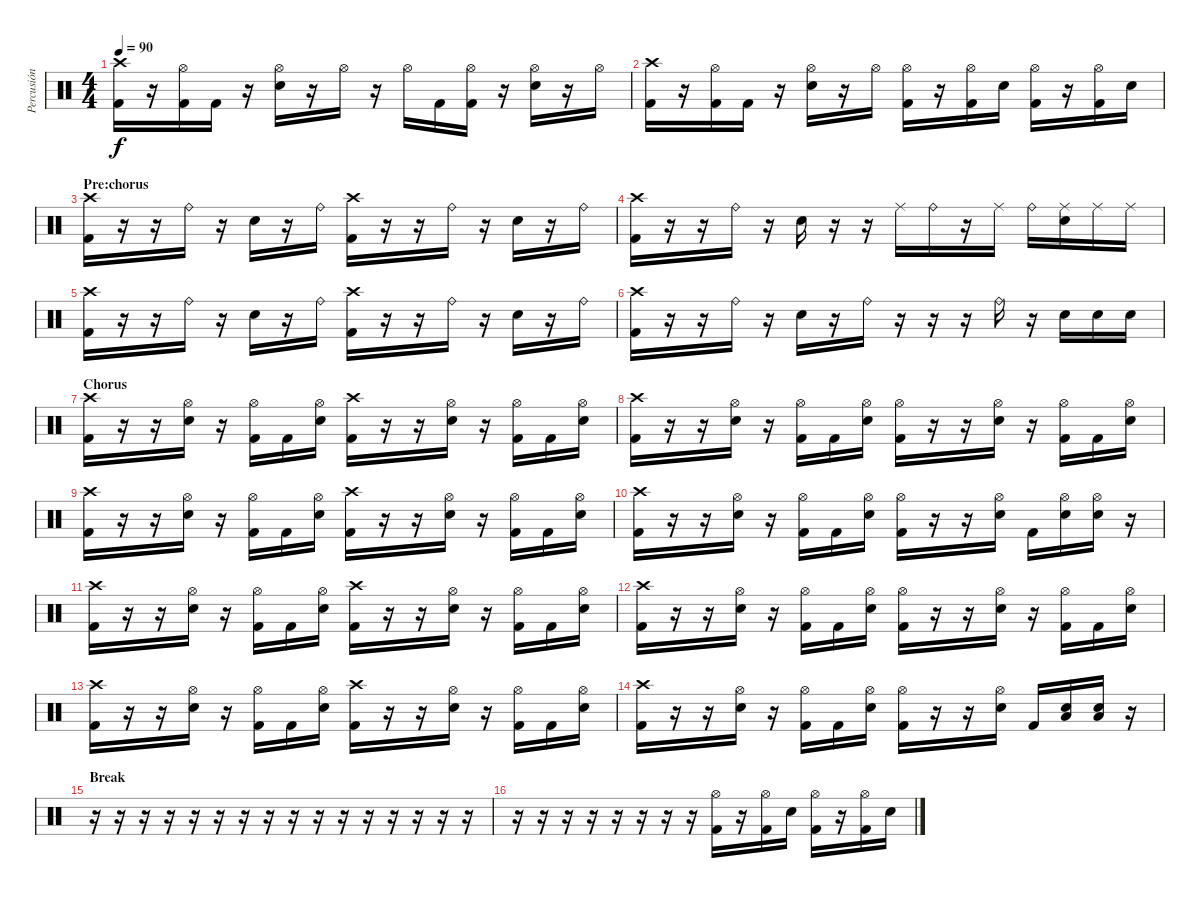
\track ("Percusión" "Percusión") {instrument percussion}
\staff {score}
\articulation defaults
\ts (4 4)
\tempo 90
\clef neutral
\ks c
("Crash high (hit)" "Kick (hit) 2").16{dy f} r.16 ("Hi-Hat (open)" "Kick (hit) 2").16 "Kick (hit) 2".16 r.16 ("Hi-Hat (open)" "Electric Snare (hit)").16 r.16 "Hi-Hat (open)".16 r.16 "Hi-Hat (open)".16 "Kick (hit) 2".16 ("Hi-Hat (open)" "Kick (hit) 2").16 r.16 ("Hi-Hat (open)" "Electric Snare (hit)").16 r.16 "Hi-Hat (open)".16 |
("Crash high (hit)" "Kick (hit) 2").16 r.16 ("Hi-Hat (open)" "Kick (hit) 2").16 "Kick (hit) 2".16 r.16 ("Hi-Hat (open)" "Electric Snare (hit)").16 r.16 "Hi-Hat (open)".16 ("Hi-Hat (open)" "Kick (hit) 2").16 r.16 ("Hi-Hat (open)" "Kick (hit) 2").16 "Electric Snare (hit)".16 ("Hi-Hat (open)" "Kick (hit) 2").16 r.16 ("Hi-Hat (open)" "Kick (hit) 2").16 "Electric Snare (hit)".16 |
\section ("" "Pre:chorus")
("Crash high (hit)" "Kick (hit) 2").16 r.16 r.16 "Ride (bell)".16 r.16 "Electric Snare (hit)".16 r.16 "Ride (bell)".16 ("Crash high (hit)" "Kick (hit) 2").16 r.16 r.16 "Ride (bell)".16 r.16 "Electric Snare (hit)".16 r.16 "Ride (bell)".16 |
("Crash high (hit)" "Kick (hit) 2").16 r.16 r.16 "Ride (bell)".16 r.16 "Electric Snare (hit)".16 r.16 r.16 "Ride (middle)".16 "Ride (bell)".16 r.16 "Ride (middle)".16 "Ride (bell)".16 ("Ride (middle)" "Electric Snare (hit)").16 "Ride (middle)".16 "Ride (middle)".16 |
("Crash high (hit)" "Kick (hit) 2").16 r.16 r.16 "Ride (bell)".16 r.16 "Electric Snare (hit)".16 r.16 "Ride (bell)".16 ("Crash high (hit)" "Kick (hit) 2").16 r.16 r.16 "Ride (bell)".16 r.16 "Electric Snare (hit)".16 r.16 "Ride (bell)".16 |
("Crash high (hit)" "Kick (hit) 2").16 r.16 r.16 "Ride (bell)".16 r.16 "Electric Snare (hit)".16 r.16 "Ride (bell)".16 r.16 r.16 r.16 "Ride (bell)".16 r.16 "Electric Snare (hit)".16 "Electric Snare (hit)".16 "Electric Snare (hit)".16 |
\section ("" "Chorus")
("Crash high (hit)" "Kick (hit) 2").16 r.16 r.16 ("Hi-Hat (open)" "Electric Snare (hit)").16 r.16 ("Hi-Hat (open)" "Kick (hit) 2").16 "Kick (hit) 2".16 ("Hi-Hat (open)" "Electric Snare (hit)").16 ("Crash high (hit)" "Kick (hit) 2").16 r.16 r.16 ("Hi-Hat (open)" "Electric Snare (hit)").16 r.16 ("Hi-Hat (open)" "Kick (hit) 2").16 "Kick (hit) 2".16 ("Hi-Hat (open)" "Electric Snare (hit)").16 |
("Crash high (hit)" "Kick (hit) 2").16 r.16 r.16 ("Hi-Hat (open)" "Electric Snare (hit)").16 r.16 ("Hi-Hat (open)" "Kick (hit) 2").16 "Kick (hit) 2".16 ("Hi-Hat (open)" "Electric Snare (hit)").16 ("Hi-Hat (open)" "Kick (hit) 2").16 r.16 r.16 ("Hi-Hat (open)" "Electric Snare (hit)").16 r.16 ("Hi-Hat (open)" "Kick (hit) 2").16 "Kick (hit) 2".16 ("Hi-Hat (open)" "Electric Snare (hit)").16 |
("Crash high (hit)" "Kick (hit) 2").16 r.16 r.16 ("Hi-Hat (open)" "Electric Snare (hit)").16 r.16 ("Hi-Hat (open)" "Kick (hit) 2").16 "Kick (hit) 2".16 ("Hi-Hat (open)" "Electric Snare (hit)").16 ("Crash high (hit)" "Kick (hit) 2").16 r.16 r.16 ("Hi-Hat (open)" "Electric Snare (hit)").16 r.16 ("Hi-Hat (open)" "Kick (hit) 2").16 "Kick (hit) 2".16 ("Hi-Hat (open)" "Electric Snare (hit)").16 |
("Crash high (hit)" "Kick (hit) 2").16 r.16 r.16 ("Hi-Hat (open)" "Electric Snare (hit)").16 r.16 ("Hi-Hat (open)" "Kick (hit) 2").16 "Kick (hit) 2".16 ("Hi-Hat (open)" "Electric Snare (hit)").16 ("Hi-Hat (open)" "Kick (hit) 2").16 r.16 r.16 ("Hi-Hat (open)" "Electric Snare (hit)").16 "Kick (hit) 2".16 ("Hi-Hat (open)" "Electric Snare (hit)").16 ("Hi-Hat (open)" "Electric Snare (hit)").16 r.16 |
("Crash high (hit)" "Kick (hit) 2").16 r.16 r.16 ("Hi-Hat (open)" "Electric Snare (hit)").16 r.16 ("Hi-Hat (open)" "Kick (hit) 2").16 "Kick (hit) 2".16 ("Hi-Hat (open)" "Electric Snare (hit)").16 ("Crash high (hit)" "Kick (hit) 2").16 r.16 r.16 ("Hi-Hat (open)" "Electric Snare (hit)").16 r.16 ("Hi-Hat (open)" "Kick (hit) 2").16 "Kick (hit) 2".16 ("Hi-Hat (open)" "Electric Snare (hit)").16 |
("Crash high (hit)" "Kick (hit) 2").16 r.16 r.16 ("Hi-Hat (open)" "Electric Snare (hit)").16 r.16 ("Hi-Hat (open)" "Kick (hit) 2").16 "Kick (hit) 2".16 ("Hi-Hat (open)" "Electric Snare (hit)").16 ("Hi-Hat (open)" "Kick (hit) 2").16 r.16 r.16 ("Hi-Hat (open)" "Electric Snare (hit)").16 r.16 ("Hi-Hat (open)" "Kick (hit) 2").16 "Kick (hit) 2".16 ("Hi-Hat (open)" "Electric Snare (hit)").16 |
("Crash high (hit)" "Kick (hit) 2").16 r.16 r.16 ("Hi-Hat (open)" "Electric Snare (hit)").16 r.16 ("Hi-Hat (open)" "Kick (hit) 2").16 "Kick (hit) 2".16 ("Hi-Hat (open)" "Electric Snare (hit)").16 ("Crash high (hit)" "Kick (hit) 2").16 r.16 r.16 ("Hi-Hat (open)" "Electric Snare (hit)").16 r.16 ("Hi-Hat (open)" "Kick (hit) 2").16 "Kick (hit) 2".16 ("Hi-Hat (open)" "Electric Snare (hit)").16 |
("Crash high (hit)" "Kick (hit) 2").16 r.16 r.16 ("Hi-Hat (open)" "Electric Snare (hit)").16 r.16 ("Hi-Hat (open)" "Kick (hit) 2").16 "Kick (hit) 2".16 ("Hi-Hat (open)" "Electric Snare (hit)").16 ("Hi-Hat (open)" "Kick (hit) 2").16 r.16 r.16 ("Hi-Hat (open)" "Electric Snare (hit)").16 "Kick (hit) 2".16 ("Low Tom (hit)" "Electric Snare (hit)").16 ("Low Tom (hit)" "Electric Snare (hit)").16 r.16 |
\section ("" "Break")
r.16 r.16 r.16 r.16 r.16 r.16 r.16 r.16 r.16 r.16 r.16 r.16 r.16 r.16 r.16 r.16 |
r.16 r.16 r.16 r.16 r.16 r.16 r.16 r.16 ("Hi-Hat (open)" "Kick (hit) 2").16 r.16 ("Hi-Hat (open)" "Kick (hit) 2").16 "Electric Snare (hit)".16 ("Hi-Hat (open)" "Kick (hit) 2").16 r.16 ("Hi-Hat (open)" "Kick (hit) 2").16 "Electric Snare (hit)".16
